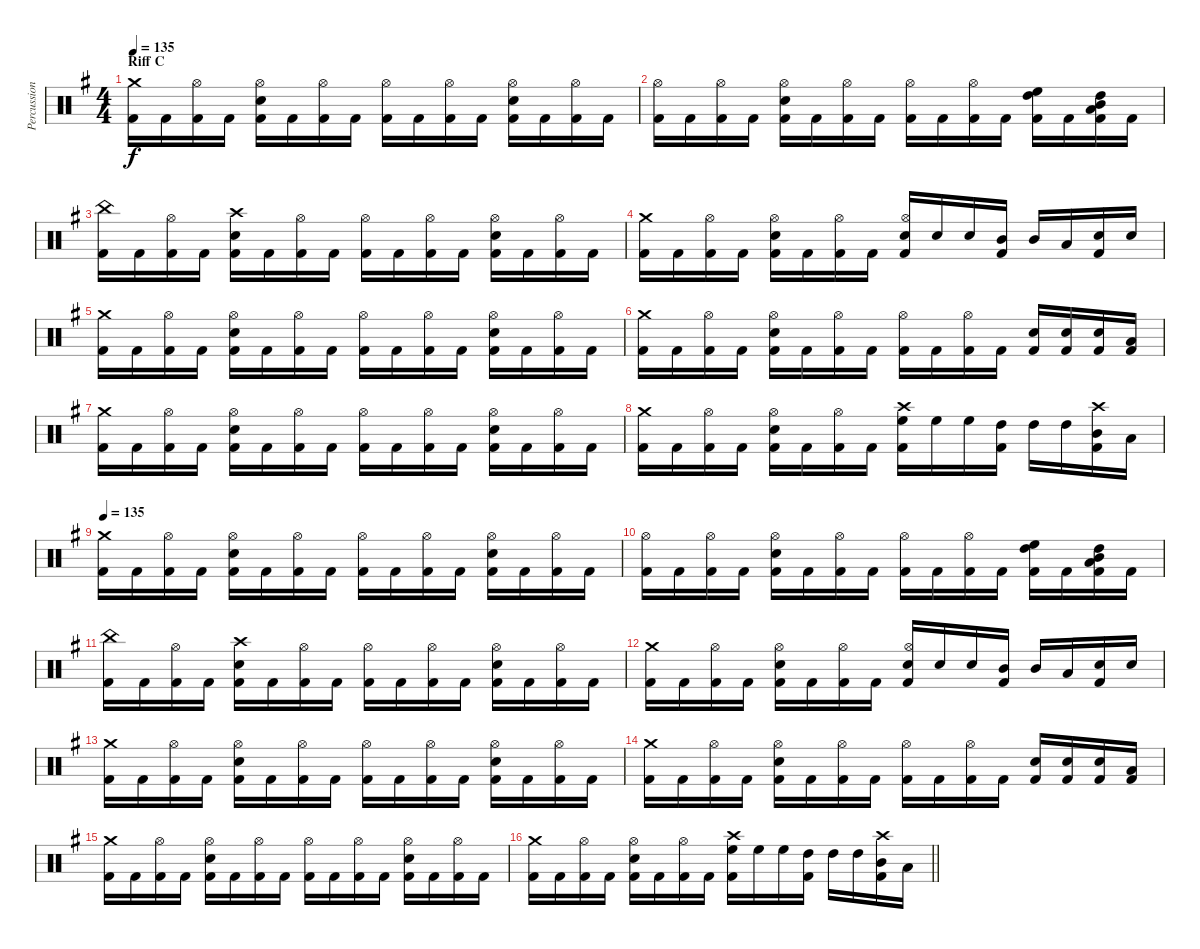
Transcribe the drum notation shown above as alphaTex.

\track ("Percussion" "Percussion") {instrument percussion}
\staff {score}
\articulation defaults
\ts (4 4)
\section ("" "Riff C")
\tempo 135
\clef neutral
\ks eminor
("Crash medium (hit)" "Kick (hit) 2").16{dy f} "Kick (hit) 2".16 ("Hi-Hat (open)" "Kick (hit) 2").16 "Kick (hit) 2".16 ("Hi-Hat (open)" "Snare (hit) 2" "Kick (hit) 2").16 "Kick (hit) 2".16 ("Hi-Hat (open)" "Kick (hit) 2").16 "Kick (hit) 2".16 ("Hi-Hat (open)" "Kick (hit) 2").16 "Kick (hit) 2".16 ("Hi-Hat (open)" "Kick (hit) 2").16 "Kick (hit) 2".16 ("Hi-Hat (open)" "Snare (hit) 2" "Kick (hit) 2").16 "Kick (hit) 2".16 ("Hi-Hat (open)" "Kick (hit) 2").16 "Kick (hit) 2".16 |
("Hi-Hat (open)" "Kick (hit) 2").16 "Kick (hit) 2".16 ("Hi-Hat (open)" "Kick (hit) 2").16 "Kick (hit) 2".16 ("Hi-Hat (open)" "Snare (hit) 2" "Kick (hit) 2").16 "Kick (hit) 2".16 ("Hi-Hat (open)" "Kick (hit) 2").16 "Kick (hit) 2".16 ("Hi-Hat (open)" "Kick (hit) 2").16 "Kick (hit) 2".16 ("Hi-Hat (open)" "Kick (hit) 2").16 "Kick (hit) 2".16 ("High Tom (hit)" "High Floor Tom (hit)" "Kick (hit) 2").16 "Kick (hit) 2".16 ("Low Tom (hit)" "Mid Tom (hit)" "High Tom (hit)" "Kick (hit) 2").16 "Kick (hit) 2".16 |
("China (hit)" "Kick (hit) 2").16 "Kick (hit) 2".16 ("Hi-Hat (open)" "Kick (hit) 2").16 "Kick (hit) 2".16 ("Crash high (hit)" "Snare (hit) 2" "Kick (hit) 2").16 "Kick (hit) 2".16 ("Hi-Hat (open)" "Kick (hit) 2").16 "Kick (hit) 2".16 ("Hi-Hat (open)" "Kick (hit) 2").16 "Kick (hit) 2".16 ("Hi-Hat (open)" "Kick (hit) 2").16 "Kick (hit) 2".16 ("Hi-Hat (open)" "Snare (hit) 2" "Kick (hit) 2").16 "Kick (hit) 2".16 ("Hi-Hat (open)" "Kick (hit) 2").16 "Kick (hit) 2".16 |
("Crash medium (hit)" "Kick (hit) 2").16 "Kick (hit) 2".16 ("Hi-Hat (open)" "Kick (hit) 2").16 "Kick (hit) 2".16 ("Hi-Hat (open)" "Snare (hit) 2" "Kick (hit) 2").16 "Kick (hit) 2".16 ("Hi-Hat (open)" "Kick (hit) 2").16 "Kick (hit) 2".16 ("Hi-Hat (open)" "Snare (hit) 2" "Kick (hit) 2").16 "Snare (hit) 2".16 "Snare (hit) 2".16 ("Mid Tom (hit)" "Kick (hit) 2").16 "Mid Tom (hit)".16 "Low Tom (hit)".16 ("Snare (hit) 2" "Kick (hit) 2").16 "Snare (hit) 2".16 |
("Crash medium (hit)" "Kick (hit) 2").16 "Kick (hit) 2".16 ("Hi-Hat (open)" "Kick (hit) 2").16 "Kick (hit) 2".16 ("Hi-Hat (open)" "Snare (hit) 2" "Kick (hit) 2").16 "Kick (hit) 2".16 ("Hi-Hat (open)" "Kick (hit) 2").16 "Kick (hit) 2".16 ("Hi-Hat (open)" "Kick (hit) 2").16 "Kick (hit) 2".16 ("Hi-Hat (open)" "Kick (hit) 2").16 "Kick (hit) 2".16 ("Hi-Hat (open)" "Snare (hit) 2" "Kick (hit) 2").16 "Kick (hit) 2".16 ("Hi-Hat (open)" "Kick (hit) 2").16 "Kick (hit) 2".16 |
("Crash medium (hit)" "Kick (hit) 2").16 "Kick (hit) 2".16 ("Hi-Hat (open)" "Kick (hit) 2").16 "Kick (hit) 2".16 ("Hi-Hat (open)" "Snare (hit) 2" "Kick (hit) 2").16 "Kick (hit) 2".16 ("Hi-Hat (open)" "Kick (hit) 2").16 "Kick (hit) 2".16 ("Hi-Hat (open)" "Kick (hit) 2").16 "Kick (hit) 2".16 ("Hi-Hat (open)" "Kick (hit) 2").16 "Kick (hit) 2".16 ("Snare (hit) 2" "Kick (hit) 2").16 ("Snare (hit) 2" "Kick (hit) 2").16 ("Snare (hit) 2" "Kick (hit) 2").16 ("Low Tom (hit)" "Kick (hit) 2").16 |
("Crash medium (hit)" "Kick (hit) 2").16 "Kick (hit) 2".16 ("Hi-Hat (open)" "Kick (hit) 2").16 "Kick (hit) 2".16 ("Hi-Hat (open)" "Snare (hit) 2" "Kick (hit) 2").16 "Kick (hit) 2".16 ("Hi-Hat (open)" "Kick (hit) 2").16 "Kick (hit) 2".16 ("Hi-Hat (open)" "Kick (hit) 2").16 "Kick (hit) 2".16 ("Hi-Hat (open)" "Kick (hit) 2").16 "Kick (hit) 2".16 ("Hi-Hat (open)" "Snare (hit) 2" "Kick (hit) 2").16 "Kick (hit) 2".16 ("Hi-Hat (open)" "Kick (hit) 2").16 "Kick (hit) 2".16 |
("Crash medium (hit)" "Kick (hit) 2").16 "Kick (hit) 2".16 ("Hi-Hat (open)" "Kick (hit) 2").16 "Kick (hit) 2".16 ("Hi-Hat (open)" "Snare (hit) 2" "Kick (hit) 2").16 "Kick (hit) 2".16 ("Hi-Hat (open)" "Kick (hit) 2").16 "Kick (hit) 2".16 ("High Floor Tom (hit)" "Crash high (hit)" "Kick (hit) 2").16 "High Floor Tom (hit)".16 "High Floor Tom (hit)".16 ("High Tom (hit)" "Kick (hit) 2").16 "High Tom (hit)".16 "High Tom (hit)".16 ("Crash high (hit)" "Mid Tom (hit)" "Kick (hit) 2").16 "Low Tom (hit)".16 |
\tempo 135
("Crash medium (hit)" "Kick (hit) 2").16 "Kick (hit) 2".16 ("Hi-Hat (open)" "Kick (hit) 2").16 "Kick (hit) 2".16 ("Hi-Hat (open)" "Snare (hit) 2" "Kick (hit) 2").16 "Kick (hit) 2".16 ("Hi-Hat (open)" "Kick (hit) 2").16 "Kick (hit) 2".16 ("Hi-Hat (open)" "Kick (hit) 2").16 "Kick (hit) 2".16 ("Hi-Hat (open)" "Kick (hit) 2").16 "Kick (hit) 2".16 ("Hi-Hat (open)" "Snare (hit) 2" "Kick (hit) 2").16 "Kick (hit) 2".16 ("Hi-Hat (open)" "Kick (hit) 2").16 "Kick (hit) 2".16 |
("Hi-Hat (open)" "Kick (hit) 2").16 "Kick (hit) 2".16 ("Hi-Hat (open)" "Kick (hit) 2").16 "Kick (hit) 2".16 ("Hi-Hat (open)" "Snare (hit) 2" "Kick (hit) 2").16 "Kick (hit) 2".16 ("Hi-Hat (open)" "Kick (hit) 2").16 "Kick (hit) 2".16 ("Hi-Hat (open)" "Kick (hit) 2").16 "Kick (hit) 2".16 ("Hi-Hat (open)" "Kick (hit) 2").16 "Kick (hit) 2".16 ("High Tom (hit)" "High Floor Tom (hit)" "Kick (hit) 2").16 "Kick (hit) 2".16 ("Low Tom (hit)" "Mid Tom (hit)" "High Tom (hit)" "Kick (hit) 2").16 "Kick (hit) 2".16 |
("China (hit)" "Kick (hit) 2").16 "Kick (hit) 2".16 ("Hi-Hat (open)" "Kick (hit) 2").16 "Kick (hit) 2".16 ("Crash high (hit)" "Snare (hit) 2" "Kick (hit) 2").16 "Kick (hit) 2".16 ("Hi-Hat (open)" "Kick (hit) 2").16 "Kick (hit) 2".16 ("Hi-Hat (open)" "Kick (hit) 2").16 "Kick (hit) 2".16 ("Hi-Hat (open)" "Kick (hit) 2").16 "Kick (hit) 2".16 ("Hi-Hat (open)" "Snare (hit) 2" "Kick (hit) 2").16 "Kick (hit) 2".16 ("Hi-Hat (open)" "Kick (hit) 2").16 "Kick (hit) 2".16 |
("Crash medium (hit)" "Kick (hit) 2").16 "Kick (hit) 2".16 ("Hi-Hat (open)" "Kick (hit) 2").16 "Kick (hit) 2".16 ("Hi-Hat (open)" "Snare (hit) 2" "Kick (hit) 2").16 "Kick (hit) 2".16 ("Hi-Hat (open)" "Kick (hit) 2").16 "Kick (hit) 2".16 ("Hi-Hat (open)" "Snare (hit) 2" "Kick (hit) 2").16 "Snare (hit) 2".16 "Snare (hit) 2".16 ("Mid Tom (hit)" "Kick (hit) 2").16 "Mid Tom (hit)".16 "Low Tom (hit)".16 ("Snare (hit) 2" "Kick (hit) 2").16 "Snare (hit) 2".16 |
("Crash medium (hit)" "Kick (hit) 2").16 "Kick (hit) 2".16 ("Hi-Hat (open)" "Kick (hit) 2").16 "Kick (hit) 2".16 ("Hi-Hat (open)" "Snare (hit) 2" "Kick (hit) 2").16 "Kick (hit) 2".16 ("Hi-Hat (open)" "Kick (hit) 2").16 "Kick (hit) 2".16 ("Hi-Hat (open)" "Kick (hit) 2").16 "Kick (hit) 2".16 ("Hi-Hat (open)" "Kick (hit) 2").16 "Kick (hit) 2".16 ("Hi-Hat (open)" "Snare (hit) 2" "Kick (hit) 2").16 "Kick (hit) 2".16 ("Hi-Hat (open)" "Kick (hit) 2").16 "Kick (hit) 2".16 |
("Crash medium (hit)" "Kick (hit) 2").16 "Kick (hit) 2".16 ("Hi-Hat (open)" "Kick (hit) 2").16 "Kick (hit) 2".16 ("Hi-Hat (open)" "Snare (hit) 2" "Kick (hit) 2").16 "Kick (hit) 2".16 ("Hi-Hat (open)" "Kick (hit) 2").16 "Kick (hit) 2".16 ("Hi-Hat (open)" "Kick (hit) 2").16 "Kick (hit) 2".16 ("Hi-Hat (open)" "Kick (hit) 2").16 "Kick (hit) 2".16 ("Snare (hit) 2" "Kick (hit) 2").16 ("Snare (hit) 2" "Kick (hit) 2").16 ("Snare (hit) 2" "Kick (hit) 2").16 ("Low Tom (hit)" "Kick (hit) 2").16 |
("Crash medium (hit)" "Kick (hit) 2").16 "Kick (hit) 2".16 ("Hi-Hat (open)" "Kick (hit) 2").16 "Kick (hit) 2".16 ("Hi-Hat (open)" "Snare (hit) 2" "Kick (hit) 2").16 "Kick (hit) 2".16 ("Hi-Hat (open)" "Kick (hit) 2").16 "Kick (hit) 2".16 ("Hi-Hat (open)" "Kick (hit) 2").16 "Kick (hit) 2".16 ("Hi-Hat (open)" "Kick (hit) 2").16 "Kick (hit) 2".16 ("Hi-Hat (open)" "Snare (hit) 2" "Kick (hit) 2").16 "Kick (hit) 2".16 ("Hi-Hat (open)" "Kick (hit) 2").16 "Kick (hit) 2".16 |
\barLineRight lightlight
("Crash medium (hit)" "Kick (hit) 2").16 "Kick (hit) 2".16 ("Hi-Hat (open)" "Kick (hit) 2").16 "Kick (hit) 2".16 ("Hi-Hat (open)" "Snare (hit) 2" "Kick (hit) 2").16 "Kick (hit) 2".16 ("Hi-Hat (open)" "Kick (hit) 2").16 "Kick (hit) 2".16 ("High Floor Tom (hit)" "Crash high (hit)" "Kick (hit) 2").16 "High Floor Tom (hit)".16 "High Floor Tom (hit)".16 ("High Tom (hit)" "Kick (hit) 2").16 "High Tom (hit)".16 "High Tom (hit)".16 ("Crash high (hit)" "Mid Tom (hit)" "Kick (hit) 2").16 "Low Tom (hit)".16
